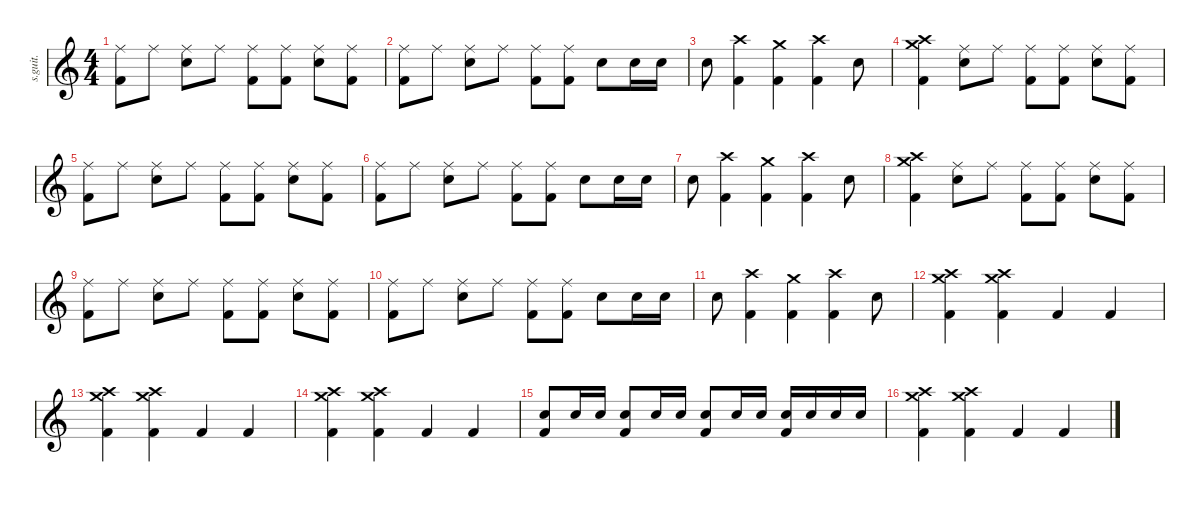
\defaultSystemsLayout 4
\hideDynamics
\bracketExtendMode nobrackets
\track ("Bob Burns (Drums)" "s.guit.") {instrument percussion}
\staff {score}
\articulation defaults
\ts (4 4)
\tempo (150 hide)
\clef g2
\ks c
("Ride (middle)" "Kick (hit) 2").8{lyrics (0 "") lyrics (1 "") lyrics (2 "") lyrics (3 "") lyrics (4 "") dy f} "Ride (middle)".8{lyrics (0 "") lyrics (1 "") lyrics (2 "") lyrics (3 "") lyrics (4 "")} ("Ride (middle)" "Electric Snare (hit)").8{lyrics (0 "") lyrics (1 "") lyrics (2 "") lyrics (3 "") lyrics (4 "")} "Ride (middle)".8{lyrics (0 "") lyrics (1 "") lyrics (2 "") lyrics (3 "") lyrics (4 "")} ("Ride (middle)" "Kick (hit) 2").8{lyrics (0 "") lyrics (1 "") lyrics (2 "") lyrics (3 "") lyrics (4 "")} ("Ride (middle)" "Kick (hit) 2").8{lyrics (0 "") lyrics (1 "") lyrics (2 "") lyrics (3 "") lyrics (4 "")} ("Ride (middle)" "Electric Snare (hit)").8{lyrics (0 "") lyrics (1 "") lyrics (2 "") lyrics (3 "") lyrics (4 "")} ("Ride (middle)" "Kick (hit) 2").8{lyrics (0 "") lyrics (1 "") lyrics (2 "") lyrics (3 "") lyrics (4 "")} |
("Ride (middle)" "Kick (hit) 2").8{lyrics (0 "") lyrics (1 "") lyrics (2 "") lyrics (3 "") lyrics (4 "")} "Ride (middle)".8{lyrics (0 "") lyrics (1 "") lyrics (2 "") lyrics (3 "") lyrics (4 "")} ("Ride (middle)" "Electric Snare (hit)").8{lyrics (0 "") lyrics (1 "") lyrics (2 "") lyrics (3 "") lyrics (4 "")} "Ride (middle)".8{lyrics (0 "") lyrics (1 "") lyrics (2 "") lyrics (3 "") lyrics (4 "")} ("Ride (middle)" "Kick (hit) 2").8{lyrics (0 "") lyrics (1 "") lyrics (2 "") lyrics (3 "") lyrics (4 "")} ("Ride (middle)" "Kick (hit) 2").8{lyrics (0 "") lyrics (1 "") lyrics (2 "") lyrics (3 "") lyrics (4 "")} "Electric Snare (hit)".8{lyrics (0 "") lyrics (1 "") lyrics (2 "") lyrics (3 "") lyrics (4 "")} "Electric Snare (hit)".16{lyrics (0 "") lyrics (1 "") lyrics (2 "") lyrics (3 "") lyrics (4 "")} "Electric Snare (hit)".16{lyrics (0 "") lyrics (1 "") lyrics (2 "") lyrics (3 "") lyrics (4 "")} |
"Electric Snare (hit)".8{lyrics (0 "") lyrics (1 "") lyrics (2 "") lyrics (3 "") lyrics (4 "")} ("Crash high (hit)" "Kick (hit) 2").4{lyrics (0 "") lyrics (1 "") lyrics (2 "") lyrics (3 "") lyrics (4 "")} ("Crash medium (hit)" "Kick (hit) 2").4{lyrics (0 "") lyrics (1 "") lyrics (2 "") lyrics (3 "") lyrics (4 "")} ("Crash high (hit)" "Kick (hit) 2").4{lyrics (0 "") lyrics (1 "") lyrics (2 "") lyrics (3 "") lyrics (4 "")} "Electric Snare (hit)".8{lyrics (0 "") lyrics (1 "") lyrics (2 "") lyrics (3 "") lyrics (4 "")} |
("Crash high (hit)" "Crash medium (hit)" "Kick (hit) 2").4{lyrics (0 "") lyrics (1 "") lyrics (2 "") lyrics (3 "") lyrics (4 "")} ("Ride (middle)" "Electric Snare (hit)").8{lyrics (0 "") lyrics (1 "") lyrics (2 "") lyrics (3 "") lyrics (4 "")} "Ride (middle)".8{lyrics (0 "") lyrics (1 "") lyrics (2 "") lyrics (3 "") lyrics (4 "")} ("Ride (middle)" "Kick (hit) 2").8{lyrics (0 "") lyrics (1 "") lyrics (2 "") lyrics (3 "") lyrics (4 "")} ("Ride (middle)" "Kick (hit) 2").8{lyrics (0 "") lyrics (1 "") lyrics (2 "") lyrics (3 "") lyrics (4 "")} ("Ride (middle)" "Electric Snare (hit)").8{lyrics (0 "") lyrics (1 "") lyrics (2 "") lyrics (3 "") lyrics (4 "")} ("Ride (middle)" "Kick (hit) 2").8{lyrics (0 "") lyrics (1 "") lyrics (2 "") lyrics (3 "") lyrics (4 "")} |
("Ride (middle)" "Kick (hit) 2").8{lyrics (0 "") lyrics (1 "") lyrics (2 "") lyrics (3 "") lyrics (4 "")} "Ride (middle)".8{lyrics (0 "") lyrics (1 "") lyrics (2 "") lyrics (3 "") lyrics (4 "")} ("Ride (middle)" "Electric Snare (hit)").8{lyrics (0 "") lyrics (1 "") lyrics (2 "") lyrics (3 "") lyrics (4 "")} "Ride (middle)".8{lyrics (0 "") lyrics (1 "") lyrics (2 "") lyrics (3 "") lyrics (4 "")} ("Ride (middle)" "Kick (hit) 2").8{lyrics (0 "") lyrics (1 "") lyrics (2 "") lyrics (3 "") lyrics (4 "")} ("Ride (middle)" "Kick (hit) 2").8{lyrics (0 "") lyrics (1 "") lyrics (2 "") lyrics (3 "") lyrics (4 "")} ("Ride (middle)" "Electric Snare (hit)").8{lyrics (0 "") lyrics (1 "") lyrics (2 "") lyrics (3 "") lyrics (4 "")} ("Ride (middle)" "Kick (hit) 2").8{lyrics (0 "") lyrics (1 "") lyrics (2 "") lyrics (3 "") lyrics (4 "")} |
("Ride (middle)" "Kick (hit) 2").8{lyrics (0 "") lyrics (1 "") lyrics (2 "") lyrics (3 "") lyrics (4 "")} "Ride (middle)".8{lyrics (0 "") lyrics (1 "") lyrics (2 "") lyrics (3 "") lyrics (4 "")} ("Ride (middle)" "Electric Snare (hit)").8{lyrics (0 "") lyrics (1 "") lyrics (2 "") lyrics (3 "") lyrics (4 "")} "Ride (middle)".8{lyrics (0 "") lyrics (1 "") lyrics (2 "") lyrics (3 "") lyrics (4 "")} ("Ride (middle)" "Kick (hit) 2").8{lyrics (0 "") lyrics (1 "") lyrics (2 "") lyrics (3 "") lyrics (4 "")} ("Ride (middle)" "Kick (hit) 2").8{lyrics (0 "") lyrics (1 "") lyrics (2 "") lyrics (3 "") lyrics (4 "")} "Electric Snare (hit)".8{lyrics (0 "") lyrics (1 "") lyrics (2 "") lyrics (3 "") lyrics (4 "")} "Electric Snare (hit)".16{lyrics (0 "") lyrics (1 "") lyrics (2 "") lyrics (3 "") lyrics (4 "")} "Electric Snare (hit)".16{lyrics (0 "") lyrics (1 "") lyrics (2 "") lyrics (3 "") lyrics (4 "")} |
"Electric Snare (hit)".8{lyrics (0 "") lyrics (1 "") lyrics (2 "") lyrics (3 "") lyrics (4 "")} ("Crash high (hit)" "Kick (hit) 2").4{lyrics (0 "") lyrics (1 "") lyrics (2 "") lyrics (3 "") lyrics (4 "")} ("Crash medium (hit)" "Kick (hit) 2").4{lyrics (0 "") lyrics (1 "") lyrics (2 "") lyrics (3 "") lyrics (4 "")} ("Crash high (hit)" "Kick (hit) 2").4{lyrics (0 "") lyrics (1 "") lyrics (2 "") lyrics (3 "") lyrics (4 "")} "Electric Snare (hit)".8{lyrics (0 "") lyrics (1 "") lyrics (2 "") lyrics (3 "") lyrics (4 "")} |
("Crash high (hit)" "Crash medium (hit)" "Kick (hit) 2").4{lyrics (0 "") lyrics (1 "") lyrics (2 "") lyrics (3 "") lyrics (4 "")} ("Ride (middle)" "Electric Snare (hit)").8{lyrics (0 "") lyrics (1 "") lyrics (2 "") lyrics (3 "") lyrics (4 "")} "Ride (middle)".8{lyrics (0 "") lyrics (1 "") lyrics (2 "") lyrics (3 "") lyrics (4 "")} ("Ride (middle)" "Kick (hit) 2").8{lyrics (0 "") lyrics (1 "") lyrics (2 "") lyrics (3 "") lyrics (4 "")} ("Ride (middle)" "Kick (hit) 2").8{lyrics (0 "") lyrics (1 "") lyrics (2 "") lyrics (3 "") lyrics (4 "")} ("Ride (middle)" "Electric Snare (hit)").8{lyrics (0 "") lyrics (1 "") lyrics (2 "") lyrics (3 "") lyrics (4 "")} ("Ride (middle)" "Kick (hit) 2").8{lyrics (0 "") lyrics (1 "") lyrics (2 "") lyrics (3 "") lyrics (4 "")} |
("Ride (middle)" "Kick (hit) 2").8{lyrics (0 "") lyrics (1 "") lyrics (2 "") lyrics (3 "") lyrics (4 "")} "Ride (middle)".8{lyrics (0 "") lyrics (1 "") lyrics (2 "") lyrics (3 "") lyrics (4 "")} ("Ride (middle)" "Electric Snare (hit)").8{lyrics (0 "") lyrics (1 "") lyrics (2 "") lyrics (3 "") lyrics (4 "")} "Ride (middle)".8{lyrics (0 "") lyrics (1 "") lyrics (2 "") lyrics (3 "") lyrics (4 "")} ("Ride (middle)" "Kick (hit) 2").8{lyrics (0 "") lyrics (1 "") lyrics (2 "") lyrics (3 "") lyrics (4 "")} ("Ride (middle)" "Kick (hit) 2").8{lyrics (0 "") lyrics (1 "") lyrics (2 "") lyrics (3 "") lyrics (4 "")} ("Ride (middle)" "Electric Snare (hit)").8{lyrics (0 "") lyrics (1 "") lyrics (2 "") lyrics (3 "") lyrics (4 "")} ("Ride (middle)" "Kick (hit) 2").8{lyrics (0 "") lyrics (1 "") lyrics (2 "") lyrics (3 "") lyrics (4 "")} |
("Ride (middle)" "Kick (hit) 2").8{lyrics (0 "") lyrics (1 "") lyrics (2 "") lyrics (3 "") lyrics (4 "")} "Ride (middle)".8{lyrics (0 "") lyrics (1 "") lyrics (2 "") lyrics (3 "") lyrics (4 "")} ("Ride (middle)" "Electric Snare (hit)").8{lyrics (0 "") lyrics (1 "") lyrics (2 "") lyrics (3 "") lyrics (4 "")} "Ride (middle)".8{lyrics (0 "") lyrics (1 "") lyrics (2 "") lyrics (3 "") lyrics (4 "")} ("Ride (middle)" "Kick (hit) 2").8{lyrics (0 "") lyrics (1 "") lyrics (2 "") lyrics (3 "") lyrics (4 "")} ("Ride (middle)" "Kick (hit) 2").8{lyrics (0 "") lyrics (1 "") lyrics (2 "") lyrics (3 "") lyrics (4 "")} "Electric Snare (hit)".8{lyrics (0 "") lyrics (1 "") lyrics (2 "") lyrics (3 "") lyrics (4 "")} "Electric Snare (hit)".16{lyrics (0 "") lyrics (1 "") lyrics (2 "") lyrics (3 "") lyrics (4 "")} "Electric Snare (hit)".16{lyrics (0 "") lyrics (1 "") lyrics (2 "") lyrics (3 "") lyrics (4 "")} |
"Electric Snare (hit)".8{lyrics (0 "") lyrics (1 "") lyrics (2 "") lyrics (3 "") lyrics (4 "")} ("Crash high (hit)" "Kick (hit) 2").4{lyrics (0 "") lyrics (1 "") lyrics (2 "") lyrics (3 "") lyrics (4 "")} ("Crash medium (hit)" "Kick (hit) 2").4{lyrics (0 "") lyrics (1 "") lyrics (2 "") lyrics (3 "") lyrics (4 "")} ("Crash high (hit)" "Kick (hit) 2").4{lyrics (0 "") lyrics (1 "") lyrics (2 "") lyrics (3 "") lyrics (4 "")} "Electric Snare (hit)".8{lyrics (0 "") lyrics (1 "") lyrics (2 "") lyrics (3 "") lyrics (4 "")} |
("Crash high (hit)" "Crash medium (hit)" "Kick (hit) 2").4{lyrics (0 "") lyrics (1 "") lyrics (2 "") lyrics (3 "") lyrics (4 "")} ("Crash high (hit)" "Crash medium (hit)" "Kick (hit) 2").4{lyrics (0 "") lyrics (1 "") lyrics (2 "") lyrics (3 "") lyrics (4 "")} "Kick (hit) 2".4{lyrics (0 "") lyrics (1 "") lyrics (2 "") lyrics (3 "") lyrics (4 "")} "Kick (hit) 2".4{lyrics (0 "") lyrics (1 "") lyrics (2 "") lyrics (3 "") lyrics (4 "")} |
("Crash high (hit)" "Crash medium (hit)" "Kick (hit) 2").4{lyrics (0 "") lyrics (1 "") lyrics (2 "") lyrics (3 "") lyrics (4 "")} ("Crash high (hit)" "Crash medium (hit)" "Kick (hit) 2").4{lyrics (0 "") lyrics (1 "") lyrics (2 "") lyrics (3 "") lyrics (4 "")} "Kick (hit) 2".4{lyrics (0 "") lyrics (1 "") lyrics (2 "") lyrics (3 "") lyrics (4 "")} "Kick (hit) 2".4{lyrics (0 "") lyrics (1 "") lyrics (2 "") lyrics (3 "") lyrics (4 "")} |
("Crash high (hit)" "Crash medium (hit)" "Kick (hit) 2").4{lyrics (0 "") lyrics (1 "") lyrics (2 "") lyrics (3 "") lyrics (4 "")} ("Crash high (hit)" "Crash medium (hit)" "Kick (hit) 2").4{lyrics (0 "") lyrics (1 "") lyrics (2 "") lyrics (3 "") lyrics (4 "")} "Kick (hit) 2".4{lyrics (0 "") lyrics (1 "") lyrics (2 "") lyrics (3 "") lyrics (4 "")} "Kick (hit) 2".4{lyrics (0 "") lyrics (1 "") lyrics (2 "") lyrics (3 "") lyrics (4 "")} |
("Electric Snare (hit)" "Kick (hit) 2").8{lyrics (0 "") lyrics (1 "") lyrics (2 "") lyrics (3 "") lyrics (4 "")} "Electric Snare (hit)".16{lyrics (0 "") lyrics (1 "") lyrics (2 "") lyrics (3 "") lyrics (4 "")} "Electric Snare (hit)".16{lyrics (0 "") lyrics (1 "") lyrics (2 "") lyrics (3 "") lyrics (4 "")} ("Electric Snare (hit)" "Kick (hit) 2").8{lyrics (0 "") lyrics (1 "") lyrics (2 "") lyrics (3 "") lyrics (4 "")} "Electric Snare (hit)".16{lyrics (0 "") lyrics (1 "") lyrics (2 "") lyrics (3 "") lyrics (4 "")} "Electric Snare (hit)".16{lyrics (0 "") lyrics (1 "") lyrics (2 "") lyrics (3 "") lyrics (4 "")} ("Electric Snare (hit)" "Kick (hit) 2").8{lyrics (0 "") lyrics (1 "") lyrics (2 "") lyrics (3 "") lyrics (4 "")} "Electric Snare (hit)".16{lyrics (0 "") lyrics (1 "") lyrics (2 "") lyrics (3 "") lyrics (4 "")} "Electric Snare (hit)".16{lyrics (0 "") lyrics (1 "") lyrics (2 "") lyrics (3 "") lyrics (4 "")} ("Electric Snare (hit)" "Kick (hit) 2").16{lyrics (0 "") lyrics (1 "") lyrics (2 "") lyrics (3 "") lyrics (4 "")} "Electric Snare (hit)".16{lyrics (0 "") lyrics (1 "") lyrics (2 "") lyrics (3 "") lyrics (4 "")} "Electric Snare (hit)".16{lyrics (0 "") lyrics (1 "") lyrics (2 "") lyrics (3 "") lyrics (4 "")} "Electric Snare (hit)".16{lyrics (0 "") lyrics (1 "") lyrics (2 "") lyrics (3 "") lyrics (4 "")} |
("Crash high (hit)" "Crash medium (hit)" "Kick (hit) 2").4{lyrics (0 "") lyrics (1 "") lyrics (2 "") lyrics (3 "") lyrics (4 "")} ("Crash high (hit)" "Crash medium (hit)" "Kick (hit) 2").4{lyrics (0 "") lyrics (1 "") lyrics (2 "") lyrics (3 "") lyrics (4 "")} "Kick (hit) 2".4{lyrics (0 "") lyrics (1 "") lyrics (2 "") lyrics (3 "") lyrics (4 "")} "Kick (hit) 2".4{lyrics (0 "") lyrics (1 "") lyrics (2 "") lyrics (3 "") lyrics (4 "")}
